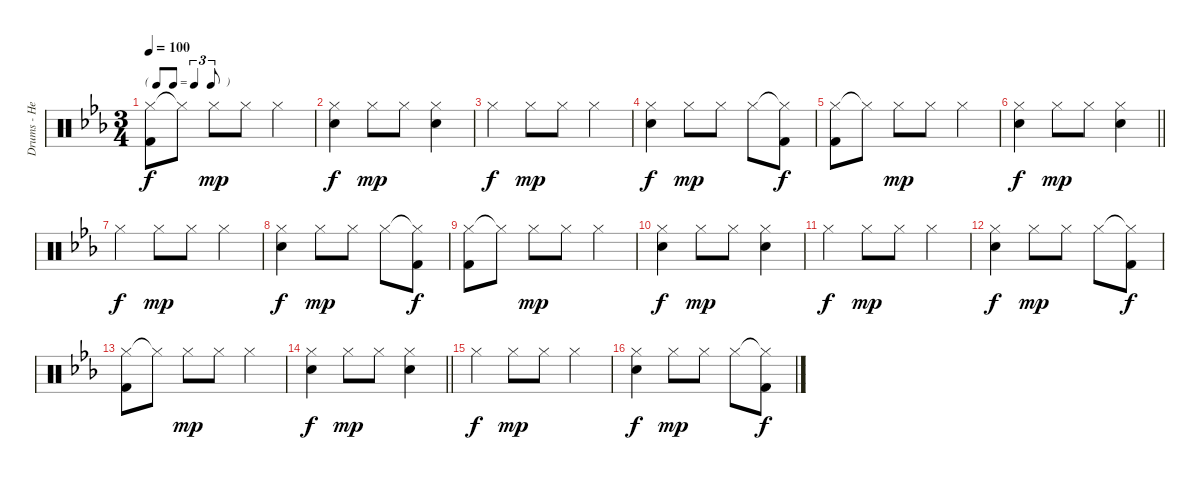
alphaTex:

\track ("Drums - Henley" "Drums - He") {instrument percussion}
\staff {score}
\articulation defaults
\ts (3 4)
\tf triplet8th
\tempo 100
\clef neutral
\ks eb
("Hi-Hat (closed)" "Kick (hit) 2").8{dy f} "Hi-Hat (closed)"{t}.8 "Hi-Hat (closed)".8{dy mp} "Hi-Hat (closed)".8 "Hi-Hat (closed)".4 |
("Hi-Hat (closed)" "Electric Snare (hit)").4{dy f} "Hi-Hat (closed)".8{dy mp} "Hi-Hat (closed)".8 ("Hi-Hat (closed)" "Electric Snare (hit)").4 |
"Hi-Hat (closed)".4{dy f} "Hi-Hat (closed)".8{dy mp} "Hi-Hat (closed)".8 "Hi-Hat (closed)".4 |
("Hi-Hat (closed)" "Electric Snare (hit)").4{dy f} "Hi-Hat (closed)".8{dy mp} "Hi-Hat (closed)".8 "Hi-Hat (closed)".8 ("Hi-Hat (closed)"{t} "Kick (hit) 2").8{dy f} |
("Hi-Hat (closed)" "Kick (hit) 2").8 "Hi-Hat (closed)"{t}.8 "Hi-Hat (closed)".8{dy mp} "Hi-Hat (closed)".8 "Hi-Hat (closed)".4 |
\barLineRight lightlight
("Hi-Hat (closed)" "Electric Snare (hit)").4{dy f} "Hi-Hat (closed)".8{dy mp} "Hi-Hat (closed)".8 ("Hi-Hat (closed)" "Electric Snare (hit)").4 |
"Hi-Hat (closed)".4{dy f} "Hi-Hat (closed)".8{dy mp} "Hi-Hat (closed)".8 "Hi-Hat (closed)".4 |
("Hi-Hat (closed)" "Electric Snare (hit)").4{dy f} "Hi-Hat (closed)".8{dy mp} "Hi-Hat (closed)".8 "Hi-Hat (closed)".8 ("Hi-Hat (closed)"{t} "Kick (hit) 2").8{dy f} |
("Hi-Hat (closed)" "Kick (hit) 2").8 "Hi-Hat (closed)"{t}.8 "Hi-Hat (closed)".8{dy mp} "Hi-Hat (closed)".8 "Hi-Hat (closed)".4 |
("Hi-Hat (closed)" "Electric Snare (hit)").4{dy f} "Hi-Hat (closed)".8{dy mp} "Hi-Hat (closed)".8 ("Hi-Hat (closed)" "Electric Snare (hit)").4 |
"Hi-Hat (closed)".4{dy f} "Hi-Hat (closed)".8{dy mp} "Hi-Hat (closed)".8 "Hi-Hat (closed)".4 |
("Hi-Hat (closed)" "Electric Snare (hit)").4{dy f} "Hi-Hat (closed)".8{dy mp} "Hi-Hat (closed)".8 "Hi-Hat (closed)".8 ("Hi-Hat (closed)"{t} "Kick (hit) 2").8{dy f} |
("Hi-Hat (closed)" "Kick (hit) 2").8 "Hi-Hat (closed)"{t}.8 "Hi-Hat (closed)".8{dy mp} "Hi-Hat (closed)".8 "Hi-Hat (closed)".4 |
\barLineRight lightlight
("Hi-Hat (closed)" "Electric Snare (hit)").4{dy f} "Hi-Hat (closed)".8{dy mp} "Hi-Hat (closed)".8 ("Hi-Hat (closed)" "Electric Snare (hit)").4 |
"Hi-Hat (closed)".4{dy f} "Hi-Hat (closed)".8{dy mp} "Hi-Hat (closed)".8 "Hi-Hat (closed)".4 |
("Hi-Hat (closed)" "Electric Snare (hit)").4{dy f} "Hi-Hat (closed)".8{dy mp} "Hi-Hat (closed)".8 "Hi-Hat (closed)".8 ("Hi-Hat (closed)"{t} "Kick (hit) 2").8{dy f}
